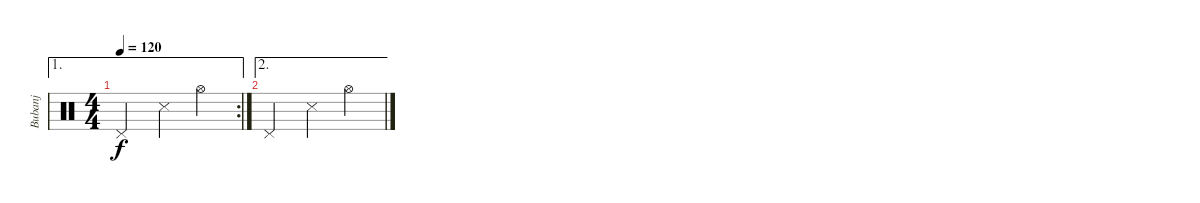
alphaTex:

\track ("Bubanj" "Bubanj") {instrument percussion}
\staff {score}
\articulation defaults
\ae 1
\rc 2
\ts (4 4)
\tempo 120
\clef neutral
\ks c "Pedal Hi-Hat (hit)".2{dy f} "Snare (side stick) 3".4 "Hi-Hat (open)".4
|
\ae 2 "Pedal Hi-Hat (hit)".2 "Snare (side stick) 3".4 "Hi-Hat (open)".4
